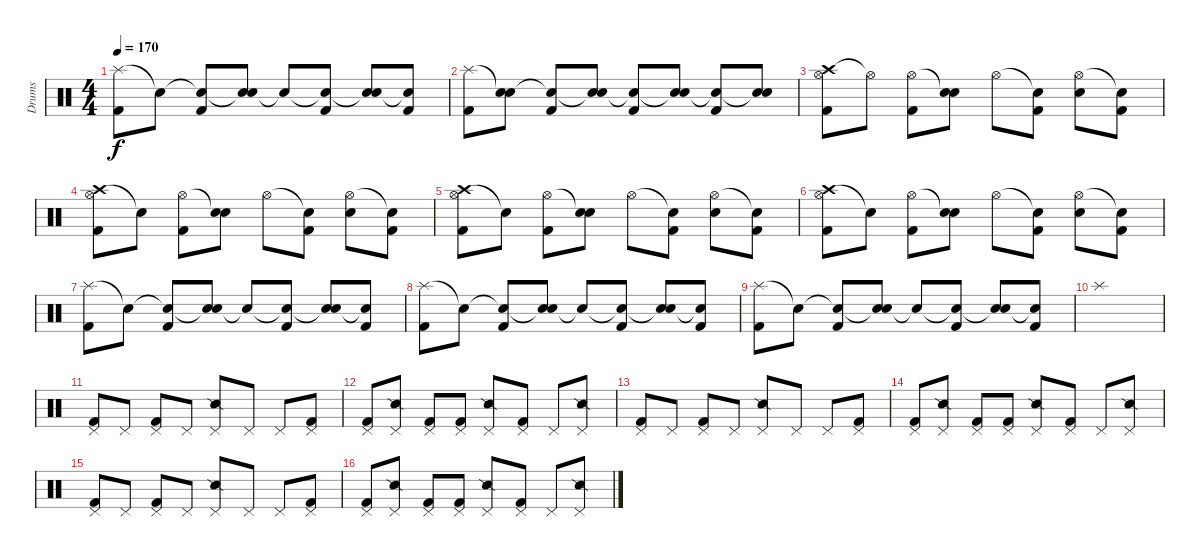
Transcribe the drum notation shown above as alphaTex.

\track ("Drums" "Drums") {instrument percussion}
\staff {score}
\articulation defaults
\ts (4 4)
\tempo 170
\clef neutral
\ks c
("Splash (hit)" "Kick (hit) 2").8{dy f} "Snare (hit)"{t}.8 ("Snare (hit)"{t} "Kick (hit) 2").8 ("Snare (hit)"{t} "Electric Snare (hit)").8 "Snare (hit)"{t}.8 ("Snare (hit)"{t} "Kick (hit) 2").8 ("Snare (hit)"{t} "Electric Snare (hit)").8 ("Snare (hit)"{t} "Kick (hit) 2").8 |
("Splash (hit)" "Kick (hit) 2").8 ("Snare (hit)"{t} "Electric Snare (hit)").8 ("Snare (hit)"{t} "Kick (hit) 2").8 ("Snare (hit)"{t} "Electric Snare (hit)").8 ("Snare (hit)"{t} "Kick (hit) 2").8 ("Snare (hit)"{t} "Electric Snare (hit)").8 ("Snare (hit)"{t} "Kick (hit) 2").8 ("Snare (hit)"{t} "Electric Snare (hit)").8 |
("Crash high (hit)" "Hi-Hat (open)" "Kick (hit) 2").8 "Hi-Hat (open)"{t}.8 ("Hi-Hat (open)" "Kick (hit) 2").8 ("Snare (hit)"{t} "Electric Snare (hit)").8 "Hi-Hat (open)".8 ("Snare (hit)"{t} "Kick (hit) 2").8 ("Hi-Hat (open)" "Electric Snare (hit)").8 ("Snare (hit)"{t} "Kick (hit) 2").8 |
("Crash high (hit)" "Hi-Hat (open)" "Kick (hit) 2").8 "Snare (hit)"{t}.8 ("Hi-Hat (open)" "Kick (hit) 2").8 ("Snare (hit)"{t} "Electric Snare (hit)").8 "Hi-Hat (open)".8 ("Snare (hit)"{t} "Kick (hit) 2").8 ("Hi-Hat (open)" "Electric Snare (hit)").8 ("Snare (hit)"{t} "Kick (hit) 2").8 |
("Crash high (hit)" "Hi-Hat (open)" "Kick (hit) 2").8 "Snare (hit)"{t}.8 ("Hi-Hat (open)" "Kick (hit) 2").8 ("Snare (hit)"{t} "Electric Snare (hit)").8 "Hi-Hat (open)".8 ("Snare (hit)"{t} "Kick (hit) 2").8 ("Hi-Hat (open)" "Electric Snare (hit)").8 ("Snare (hit)"{t} "Kick (hit) 2").8 |
("Crash high (hit)" "Hi-Hat (open)" "Kick (hit) 2").8 "Snare (hit)"{t}.8 ("Hi-Hat (open)" "Kick (hit) 2").8 ("Snare (hit)"{t} "Electric Snare (hit)").8 "Hi-Hat (open)".8 ("Snare (hit)"{t} "Kick (hit) 2").8 ("Hi-Hat (open)" "Electric Snare (hit)").8 ("Snare (hit)"{t} "Kick (hit) 2").8 |
("Splash (hit)" "Kick (hit) 2").8 "Snare (hit)"{t}.8 ("Snare (hit)"{t} "Kick (hit) 2").8 ("Snare (hit)"{t} "Electric Snare (hit)").8 "Snare (hit)"{t}.8 ("Snare (hit)"{t} "Kick (hit) 2").8 ("Snare (hit)"{t} "Electric Snare (hit)").8 ("Snare (hit)"{t} "Kick (hit) 2").8 |
("Splash (hit)" "Kick (hit) 2").8 "Snare (hit)"{t}.8 ("Snare (hit)"{t} "Kick (hit) 2").8 ("Snare (hit)"{t} "Electric Snare (hit)").8 "Snare (hit)"{t}.8 ("Snare (hit)"{t} "Kick (hit) 2").8 ("Snare (hit)"{t} "Electric Snare (hit)").8 ("Snare (hit)"{t} "Kick (hit) 2").8 |
("Splash (hit)" "Kick (hit) 2").8 "Snare (hit)"{t}.8 ("Snare (hit)"{t} "Kick (hit) 2").8 ("Snare (hit)"{t} "Electric Snare (hit)").8 "Snare (hit)"{t}.8 ("Snare (hit)"{t} "Kick (hit) 2").8 ("Snare (hit)"{t} "Electric Snare (hit)").8 ("Snare (hit)"{t} "Kick (hit) 2").8 |
"Splash (hit)".1 |
("Pedal Hi-Hat (hit)" "Kick (hit) 2").8 "Pedal Hi-Hat (hit)".8 ("Pedal Hi-Hat (hit)" "Kick (hit) 2").8 "Pedal Hi-Hat (hit)".8 ("Pedal Hi-Hat (hit)" "Snare (side stick) 2").8 "Pedal Hi-Hat (hit)".8 "Pedal Hi-Hat (hit)".8 ("Pedal Hi-Hat (hit)" "Kick (hit) 2").8 |
("Pedal Hi-Hat (hit)" "Kick (hit) 2").8 ("Pedal Hi-Hat (hit)" "Snare (side stick) 2").8 ("Pedal Hi-Hat (hit)" "Kick (hit) 2").8 ("Pedal Hi-Hat (hit)" "Kick (hit) 2").8 ("Pedal Hi-Hat (hit)" "Snare (side stick) 2").8 ("Pedal Hi-Hat (hit)" "Kick (hit) 2").8 "Pedal Hi-Hat (hit)".8 ("Pedal Hi-Hat (hit)" "Snare (side stick) 2").8 |
("Pedal Hi-Hat (hit)" "Kick (hit) 2").8 "Pedal Hi-Hat (hit)".8 ("Pedal Hi-Hat (hit)" "Kick (hit) 2").8 "Pedal Hi-Hat (hit)".8 ("Pedal Hi-Hat (hit)" "Snare (side stick) 2").8 "Pedal Hi-Hat (hit)".8 "Pedal Hi-Hat (hit)".8 ("Pedal Hi-Hat (hit)" "Kick (hit) 2").8 |
("Pedal Hi-Hat (hit)" "Kick (hit) 2").8 ("Pedal Hi-Hat (hit)" "Snare (side stick) 2").8 ("Pedal Hi-Hat (hit)" "Kick (hit) 2").8 ("Pedal Hi-Hat (hit)" "Kick (hit) 2").8 ("Pedal Hi-Hat (hit)" "Snare (side stick) 2").8 ("Pedal Hi-Hat (hit)" "Kick (hit) 2").8 "Pedal Hi-Hat (hit)".8 ("Pedal Hi-Hat (hit)" "Snare (side stick) 2").8 |
("Pedal Hi-Hat (hit)" "Kick (hit) 2").8 "Pedal Hi-Hat (hit)".8 ("Pedal Hi-Hat (hit)" "Kick (hit) 2").8 "Pedal Hi-Hat (hit)".8 ("Pedal Hi-Hat (hit)" "Snare (side stick) 2").8 "Pedal Hi-Hat (hit)".8 "Pedal Hi-Hat (hit)".8 ("Pedal Hi-Hat (hit)" "Kick (hit) 2").8 |
("Pedal Hi-Hat (hit)" "Kick (hit) 2").8 ("Pedal Hi-Hat (hit)" "Snare (side stick) 2").8 ("Pedal Hi-Hat (hit)" "Kick (hit) 2").8 ("Pedal Hi-Hat (hit)" "Kick (hit) 2").8 ("Pedal Hi-Hat (hit)" "Snare (side stick) 2").8 ("Pedal Hi-Hat (hit)" "Kick (hit) 2").8 "Pedal Hi-Hat (hit)".8 ("Pedal Hi-Hat (hit)" "Snare (side stick) 2").8
